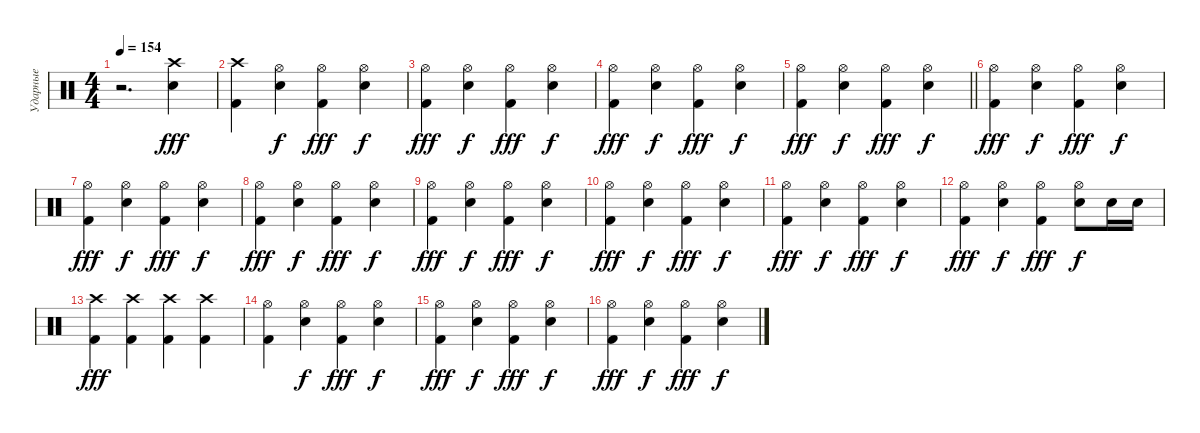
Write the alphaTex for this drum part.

\track ("Ударные" "Ударные") {instrument percussion}
\staff
\articulation defaults
\ts (4 4)
\tempo 154
\clef neutral
\ks c
r.2{d dy ff} ("Snare (hit) 2" "Crash high (hit)").4{dy fff} |
("Kick (hit) 2" "Crash high (hit)").4 ("Snare (hit) 2" "Hi-Hat (open)").4{dy f} ("Kick (hit) 2" "Hi-Hat (open)").4{dy fff} ("Snare (hit) 2" "Hi-Hat (open)").4{dy f} |
("Kick (hit) 2" "Hi-Hat (open)").4{dy fff} ("Snare (hit) 2" "Hi-Hat (open)").4{dy f} ("Kick (hit) 2" "Hi-Hat (open)").4{dy fff} ("Snare (hit) 2" "Hi-Hat (open)").4{dy f} |
("Kick (hit) 2" "Hi-Hat (open)").4{dy fff} ("Snare (hit) 2" "Hi-Hat (open)").4{dy f} ("Kick (hit) 2" "Hi-Hat (open)").4{dy fff} ("Snare (hit) 2" "Hi-Hat (open)").4{dy f} |
\barLineRight lightlight
("Kick (hit) 2" "Hi-Hat (open)").4{dy fff} ("Snare (hit) 2" "Hi-Hat (open)").4{dy f} ("Kick (hit) 2" "Hi-Hat (open)").4{dy fff} ("Snare (hit) 2" "Hi-Hat (open)").4{dy f} |
("Kick (hit) 2" "Hi-Hat (open)").4{dy fff} ("Snare (hit) 2" "Hi-Hat (open)").4{dy f} ("Kick (hit) 2" "Hi-Hat (open)").4{dy fff} ("Snare (hit) 2" "Hi-Hat (open)").4{dy f} |
("Kick (hit) 2" "Hi-Hat (open)").4{dy fff} ("Snare (hit) 2" "Hi-Hat (open)").4{dy f} ("Kick (hit) 2" "Hi-Hat (open)").4{dy fff} ("Snare (hit) 2" "Hi-Hat (open)").4{dy f} |
("Kick (hit) 2" "Hi-Hat (open)").4{dy fff} ("Snare (hit) 2" "Hi-Hat (open)").4{dy f} ("Kick (hit) 2" "Hi-Hat (open)").4{dy fff} ("Snare (hit) 2" "Hi-Hat (open)").4{dy f} |
("Kick (hit) 2" "Hi-Hat (open)").4{dy fff} ("Snare (hit) 2" "Hi-Hat (open)").4{dy f} ("Kick (hit) 2" "Hi-Hat (open)").4{dy fff} ("Snare (hit) 2" "Hi-Hat (open)").4{dy f} |
("Kick (hit) 2" "Hi-Hat (open)").4{dy fff} ("Snare (hit) 2" "Hi-Hat (open)").4{dy f} ("Kick (hit) 2" "Hi-Hat (open)").4{dy fff} ("Snare (hit) 2" "Hi-Hat (open)").4{dy f} |
("Kick (hit) 2" "Hi-Hat (open)").4{dy fff} ("Snare (hit) 2" "Hi-Hat (open)").4{dy f} ("Kick (hit) 2" "Hi-Hat (open)").4{dy fff} ("Snare (hit) 2" "Hi-Hat (open)").4{dy f} |
("Kick (hit) 2" "Hi-Hat (open)").4{dy fff} ("Snare (hit) 2" "Hi-Hat (open)").4{dy f} ("Kick (hit) 2" "Hi-Hat (open)").4{dy fff} ("Snare (hit) 2" "Hi-Hat (open)").8{dy f} "Snare (hit) 2".16 "Snare (hit) 2".16 |
("Kick (hit) 2" "Crash high (hit)").4{dy fff} ("Kick (hit) 2" "Crash high (hit)").4 ("Kick (hit) 2" "Crash high (hit)").4 ("Kick (hit) 2" "Crash high (hit)").4 |
("Kick (hit) 2" "Hi-Hat (open)").4 ("Snare (hit) 2" "Hi-Hat (open)").4{dy f} ("Kick (hit) 2" "Hi-Hat (open)").4{dy fff} ("Snare (hit) 2" "Hi-Hat (open)").4{dy f} |
("Kick (hit) 2" "Hi-Hat (open)").4{dy fff} ("Snare (hit) 2" "Hi-Hat (open)").4{dy f} ("Kick (hit) 2" "Hi-Hat (open)").4{dy fff} ("Snare (hit) 2" "Hi-Hat (open)").4{dy f} |
("Kick (hit) 2" "Hi-Hat (open)").4{dy fff} ("Snare (hit) 2" "Hi-Hat (open)").4{dy f} ("Kick (hit) 2" "Hi-Hat (open)").4{dy fff} ("Snare (hit) 2" "Hi-Hat (open)").4{dy f}
